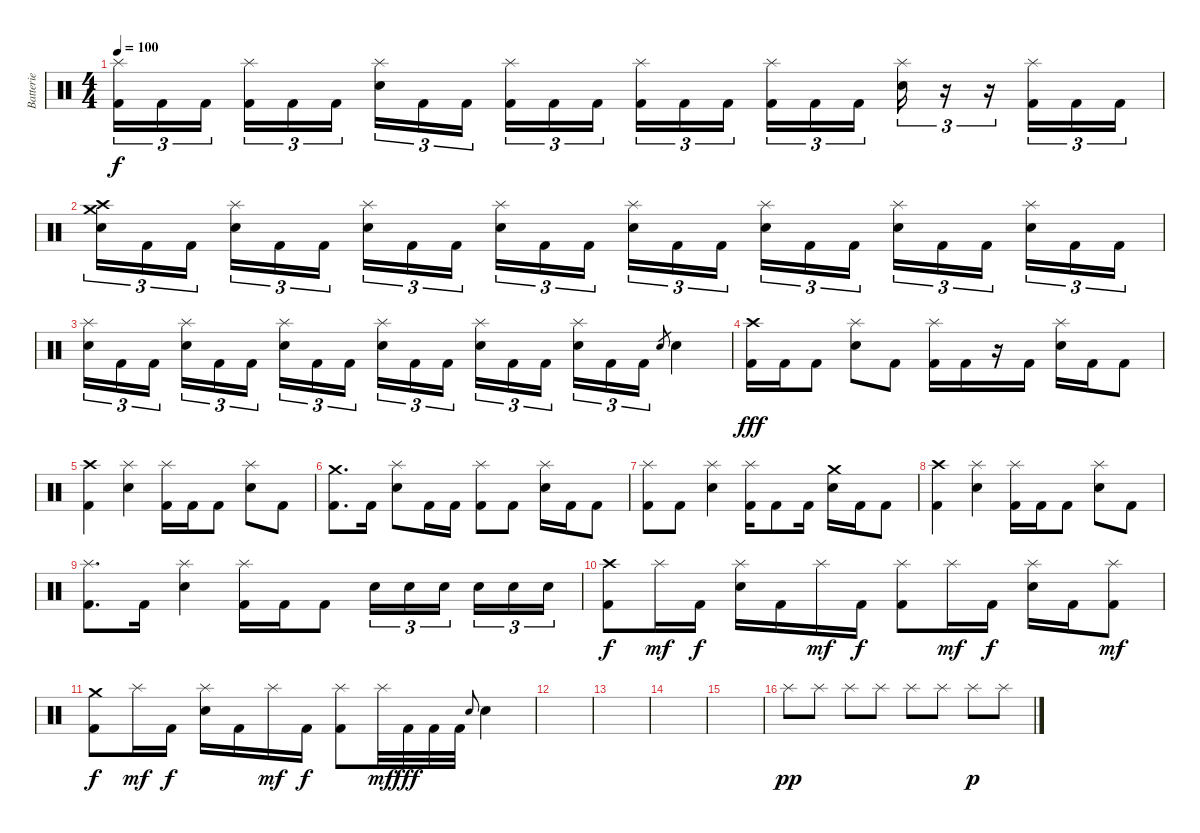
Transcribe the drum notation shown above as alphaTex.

\track ("Batterie" "Batterie") {instrument percussion}
\staff {score}
\articulation defaults
\ts (4 4)
\tempo 100
\clef neutral
\ks c
("Splash (hit)" "Kick (hit) 2").16{tu (3 2) dy f} "Kick (hit) 2".16{tu (3 2)} "Kick (hit) 2".16{tu (3 2) beam splitsecondary} ("Splash (hit)" "Kick (hit) 2").16{tu (3 2)} "Kick (hit) 2".16{tu (3 2)} "Kick (hit) 2".16{tu (3 2)} ("Splash (hit)" "Electric Snare (hit)").16{tu (3 2)} "Kick (hit) 2".16{tu (3 2)} "Kick (hit) 2".16{tu (3 2) beam splitsecondary} ("Splash (hit)" "Kick (hit) 2").16{tu (3 2)} "Kick (hit) 2".16{tu (3 2)} "Kick (hit) 2".16{tu (3 2)} ("Splash (hit)" "Kick (hit) 2").16{tu (3 2)} "Kick (hit) 2".16{tu (3 2)} "Kick (hit) 2".16{tu (3 2) beam splitsecondary} ("Splash (hit)" "Kick (hit) 2").16{tu (3 2)} "Kick (hit) 2".16{tu (3 2)} "Kick (hit) 2".16{tu (3 2)} ("Splash (hit)" "Electric Snare (hit)").16{tu (3 2)} r.16{tu (3 2)} r.16{tu (3 2)} ("Splash (hit)" "Kick (hit) 2").16{tu (3 2)} "Kick (hit) 2".16{tu (3 2)} "Kick (hit) 2".16{tu (3 2)} |
("Crash high (hit)" "Electric Snare (hit)" "Crash medium (hit)").16{tu (3 2)} "Kick (hit) 2".16{tu (3 2)} "Kick (hit) 2".16{tu (3 2) beam splitsecondary} ("Splash (hit)" "Electric Snare (hit)").16{tu (3 2)} "Kick (hit) 2".16{tu (3 2)} "Kick (hit) 2".16{tu (3 2)} ("Splash (hit)" "Electric Snare (hit)").16{tu (3 2)} "Kick (hit) 2".16{tu (3 2)} "Kick (hit) 2".16{tu (3 2) beam splitsecondary} ("Splash (hit)" "Electric Snare (hit)").16{tu (3 2)} "Kick (hit) 2".16{tu (3 2)} "Kick (hit) 2".16{tu (3 2)} ("Splash (hit)" "Electric Snare (hit)").16{tu (3 2)} "Kick (hit) 2".16{tu (3 2)} "Kick (hit) 2".16{tu (3 2) beam splitsecondary} ("Splash (hit)" "Electric Snare (hit)").16{tu (3 2)} "Kick (hit) 2".16{tu (3 2)} "Kick (hit) 2".16{tu (3 2)} ("Splash (hit)" "Electric Snare (hit)").16{tu (3 2)} "Kick (hit) 2".16{tu (3 2)} "Kick (hit) 2".16{tu (3 2) beam splitsecondary} ("Splash (hit)" "Electric Snare (hit)").16{tu (3 2)} "Kick (hit) 2".16{tu (3 2)} "Kick (hit) 2".16{tu (3 2)} |
("Splash (hit)" "Electric Snare (hit)").16{tu (3 2)} "Kick (hit) 2".16{tu (3 2)} "Kick (hit) 2".16{tu (3 2) beam splitsecondary} ("Splash (hit)" "Electric Snare (hit)").16{tu (3 2)} "Kick (hit) 2".16{tu (3 2)} "Kick (hit) 2".16{tu (3 2)} ("Splash (hit)" "Electric Snare (hit)").16{tu (3 2)} "Kick (hit) 2".16{tu (3 2)} "Kick (hit) 2".16{tu (3 2) beam splitsecondary} ("Splash (hit)" "Electric Snare (hit)").16{tu (3 2)} "Kick (hit) 2".16{tu (3 2)} "Kick (hit) 2".16{tu (3 2)} ("Splash (hit)" "Electric Snare (hit)").16{tu (3 2)} "Kick (hit) 2".16{tu (3 2)} "Kick (hit) 2".16{tu (3 2) beam splitsecondary} ("Splash (hit)" "Electric Snare (hit)").16{tu (3 2)} "Kick (hit) 2".16{tu (3 2)} "Kick (hit) 2".16{tu (3 2)} "Electric Snare (hit)".8{gr} "Electric Snare (hit)".4 |
("Crash high (hit)" "Kick (hit) 2").16{dy fff} "Kick (hit) 2".16 "Kick (hit) 2".8 ("Splash (hit)" "Electric Snare (hit)").8 "Kick (hit) 2".8 ("Splash (hit)" "Kick (hit) 2").16 "Kick (hit) 2".16 r.16 "Kick (hit) 2".16 ("Splash (hit)" "Electric Snare (hit)").16 "Kick (hit) 2".16 "Kick (hit) 2".8 |
("Crash high (hit)" "Kick (hit) 2").4 ("Splash (hit)" "Electric Snare (hit)").4 ("Splash (hit)" "Kick (hit) 2").16 "Kick (hit) 2".16 "Kick (hit) 2".8 ("Splash (hit)" "Electric Snare (hit)").8 "Kick (hit) 2".8 |
("Crash medium (hit)" "Kick (hit) 2").8{d} "Kick (hit) 2".16 ("Splash (hit)" "Electric Snare (hit)").8 "Kick (hit) 2".16 "Kick (hit) 2".16 ("Splash (hit)" "Kick (hit) 2").8 "Kick (hit) 2".8 ("Splash (hit)" "Electric Snare (hit)").16 "Kick (hit) 2".16 "Kick (hit) 2".8 |
("Splash (hit)" "Kick (hit) 2").8 "Kick (hit) 2".8 ("Splash (hit)" "Electric Snare (hit)").4 ("Splash (hit)" "Kick (hit) 2").16 "Kick (hit) 2".8 "Kick (hit) 2".16 ("Crash medium (hit)" "Electric Snare (hit)").16 "Kick (hit) 2".16 "Kick (hit) 2".8 |
("Crash high (hit)" "Kick (hit) 2").4 ("Splash (hit)" "Electric Snare (hit)").4 ("Splash (hit)" "Kick (hit) 2").16 "Kick (hit) 2".16 "Kick (hit) 2".8 ("Splash (hit)" "Electric Snare (hit)").8 "Kick (hit) 2".8 |
("Splash (hit)" "Kick (hit) 2").8{d} "Kick (hit) 2".16 ("Splash (hit)" "Electric Snare (hit)").4 ("Splash (hit)" "Kick (hit) 2").16 "Kick (hit) 2".16 "Kick (hit) 2".8 "Electric Snare (hit)".16{tu (3 2)} "Electric Snare (hit)".16{tu (3 2)} "Electric Snare (hit)".16{tu (3 2) beam splitsecondary} "Electric Snare (hit)".16{tu (3 2)} "Electric Snare (hit)".16{tu (3 2)} "Electric Snare (hit)".16{tu (3 2)} |
("Crash high (hit)" "Kick (hit) 2").8{dy f} "Splash (hit)".16{dy mf} "Kick (hit) 2".16{dy f} ("Splash (hit)" "Electric Snare (hit)").16 "Kick (hit) 2".16 "Splash (hit)".16{dy mf} "Kick (hit) 2".16{dy f} ("Splash (hit)" "Kick (hit) 2").8 "Splash (hit)".16{dy mf} "Kick (hit) 2".16{dy f} ("Splash (hit)" "Electric Snare (hit)").16 "Kick (hit) 2".16 ("Splash (hit)" "Kick (hit) 2").8{dy mf} |
("Crash medium (hit)" "Kick (hit) 2").8{dy f} "Splash (hit)".16{dy mf} "Kick (hit) 2".16{dy f} ("Splash (hit)" "Electric Snare (hit)").16 "Kick (hit) 2".16 "Splash (hit)".16{dy mf} "Kick (hit) 2".16{dy f} ("Splash (hit)" "Kick (hit) 2").8 "Splash (hit)".32{dy mf} "Kick (hit) 2".32{dy fff} "Kick (hit) 2".32 "Kick (hit) 2".32 "Electric Snare (hit)".8{gr onbeat} "Electric Snare (hit)".4 |
|
|
|
|
"Splash (hit)".8{dy pp} "Splash (hit)".8 "Splash (hit)".8 "Splash (hit)".8 "Splash (hit)".8 "Splash (hit)".8 "Splash (hit)".8{dy p} "Splash (hit)".8
